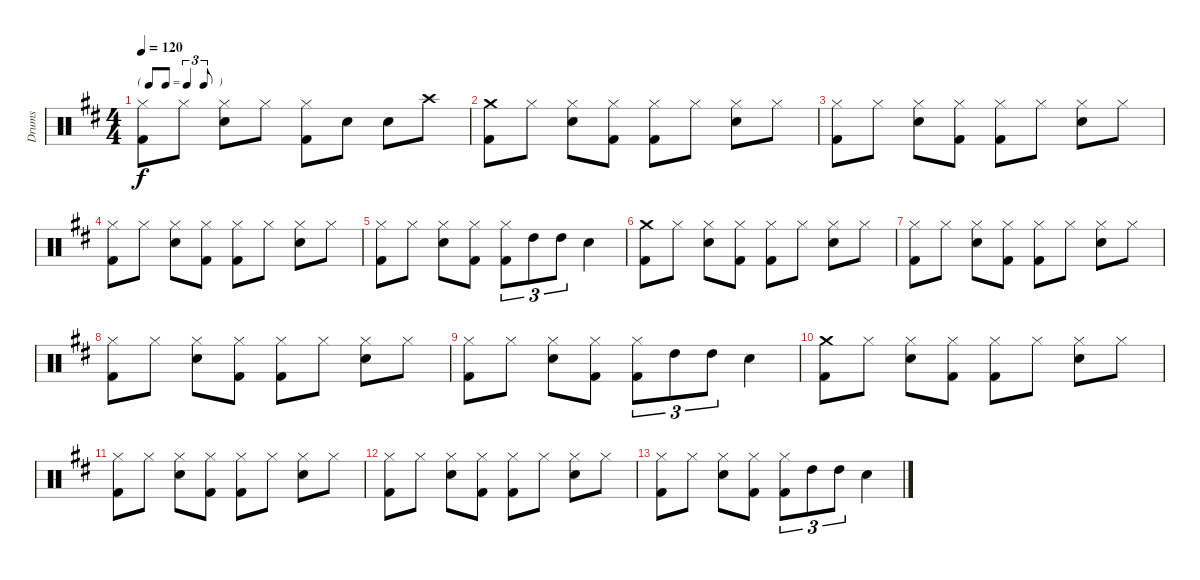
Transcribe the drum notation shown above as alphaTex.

\track ("Drums" "Drums") {instrument percussion}
\staff {score}
\articulation defaults
\ts (4 4)
\tf triplet8th
\tempo 120
\clef neutral
\ks d
("Kick (hit) 2" "Hi-Hat (closed)").8{dy f} "Hi-Hat (closed)".8 ("Snare (hit) 2" "Hi-Hat (closed)").8 "Hi-Hat (closed)".8 ("Kick (hit) 2" "Hi-Hat (closed)").8 "Snare (hit) 2".8 "Snare (hit) 2".8 "Crash high (hit)".8 |
("Kick (hit) 2" "Crash medium (hit)").8 "Hi-Hat (closed)".8 ("Snare (hit) 2" "Hi-Hat (closed)").8 ("Kick (hit) 2" "Hi-Hat (closed)").8 ("Kick (hit) 2" "Hi-Hat (closed)").8 "Hi-Hat (closed)".8 ("Snare (hit) 2" "Hi-Hat (closed)").8 "Hi-Hat (closed)".8 |
("Kick (hit) 2" "Hi-Hat (closed)").8 "Hi-Hat (closed)".8 ("Snare (hit) 2" "Hi-Hat (closed)").8 ("Kick (hit) 2" "Hi-Hat (closed)").8 ("Kick (hit) 2" "Hi-Hat (closed)").8 "Hi-Hat (closed)".8 ("Snare (hit) 2" "Hi-Hat (closed)").8 "Hi-Hat (closed)".8 |
("Kick (hit) 2" "Hi-Hat (closed)").8 "Hi-Hat (closed)".8 ("Snare (hit) 2" "Hi-Hat (closed)").8 ("Kick (hit) 2" "Hi-Hat (closed)").8 ("Kick (hit) 2" "Hi-Hat (closed)").8 "Hi-Hat (closed)".8 ("Snare (hit) 2" "Hi-Hat (closed)").8 "Hi-Hat (closed)".8 |
("Kick (hit) 2" "Hi-Hat (closed)").8 "Hi-Hat (closed)".8 ("Snare (hit) 2" "Hi-Hat (closed)").8 ("Kick (hit) 2" "Hi-Hat (closed)").8 ("Kick (hit) 2" "Hi-Hat (closed)").8{tu (3 2)} "High Tom (hit)".8{tu (3 2)} "High Tom (hit)".8{tu (3 2)} "Snare (hit) 2".4 |
("Kick (hit) 2" "Crash medium (hit)").8 "Hi-Hat (closed)".8 ("Snare (hit) 2" "Hi-Hat (closed)").8 ("Kick (hit) 2" "Hi-Hat (closed)").8 ("Kick (hit) 2" "Hi-Hat (closed)").8 "Hi-Hat (closed)".8 ("Snare (hit) 2" "Hi-Hat (closed)").8 "Hi-Hat (closed)".8 |
("Kick (hit) 2" "Hi-Hat (closed)").8 "Hi-Hat (closed)".8 ("Snare (hit) 2" "Hi-Hat (closed)").8 ("Kick (hit) 2" "Hi-Hat (closed)").8 ("Kick (hit) 2" "Hi-Hat (closed)").8 "Hi-Hat (closed)".8 ("Snare (hit) 2" "Hi-Hat (closed)").8 "Hi-Hat (closed)".8 |
("Kick (hit) 2" "Hi-Hat (closed)").8 "Hi-Hat (closed)".8 ("Snare (hit) 2" "Hi-Hat (closed)").8 ("Kick (hit) 2" "Hi-Hat (closed)").8 ("Kick (hit) 2" "Hi-Hat (closed)").8 "Hi-Hat (closed)".8 ("Snare (hit) 2" "Hi-Hat (closed)").8 "Hi-Hat (closed)".8 |
("Kick (hit) 2" "Hi-Hat (closed)").8 "Hi-Hat (closed)".8 ("Snare (hit) 2" "Hi-Hat (closed)").8 ("Kick (hit) 2" "Hi-Hat (closed)").8 ("Kick (hit) 2" "Hi-Hat (closed)").8{tu (3 2)} "High Tom (hit)".8{tu (3 2)} "High Tom (hit)".8{tu (3 2)} "Snare (hit) 2".4 |
("Kick (hit) 2" "Crash medium (hit)").8 "Hi-Hat (closed)".8 ("Snare (hit) 2" "Hi-Hat (closed)").8 ("Kick (hit) 2" "Hi-Hat (closed)").8 ("Kick (hit) 2" "Hi-Hat (closed)").8 "Hi-Hat (closed)".8 ("Snare (hit) 2" "Hi-Hat (closed)").8 "Hi-Hat (closed)".8 |
("Kick (hit) 2" "Hi-Hat (closed)").8 "Hi-Hat (closed)".8 ("Snare (hit) 2" "Hi-Hat (closed)").8 ("Kick (hit) 2" "Hi-Hat (closed)").8 ("Kick (hit) 2" "Hi-Hat (closed)").8 "Hi-Hat (closed)".8 ("Snare (hit) 2" "Hi-Hat (closed)").8 "Hi-Hat (closed)".8 |
("Kick (hit) 2" "Hi-Hat (closed)").8 "Hi-Hat (closed)".8 ("Snare (hit) 2" "Hi-Hat (closed)").8 ("Kick (hit) 2" "Hi-Hat (closed)").8 ("Kick (hit) 2" "Hi-Hat (closed)").8 "Hi-Hat (closed)".8 ("Snare (hit) 2" "Hi-Hat (closed)").8 "Hi-Hat (closed)".8 |
("Kick (hit) 2" "Hi-Hat (closed)").8 "Hi-Hat (closed)".8 ("Snare (hit) 2" "Hi-Hat (closed)").8 ("Kick (hit) 2" "Hi-Hat (closed)").8 ("Kick (hit) 2" "Hi-Hat (closed)").8{tu (3 2)} "High Tom (hit)".8{tu (3 2)} "High Tom (hit)".8{tu (3 2)} "Snare (hit) 2".4
